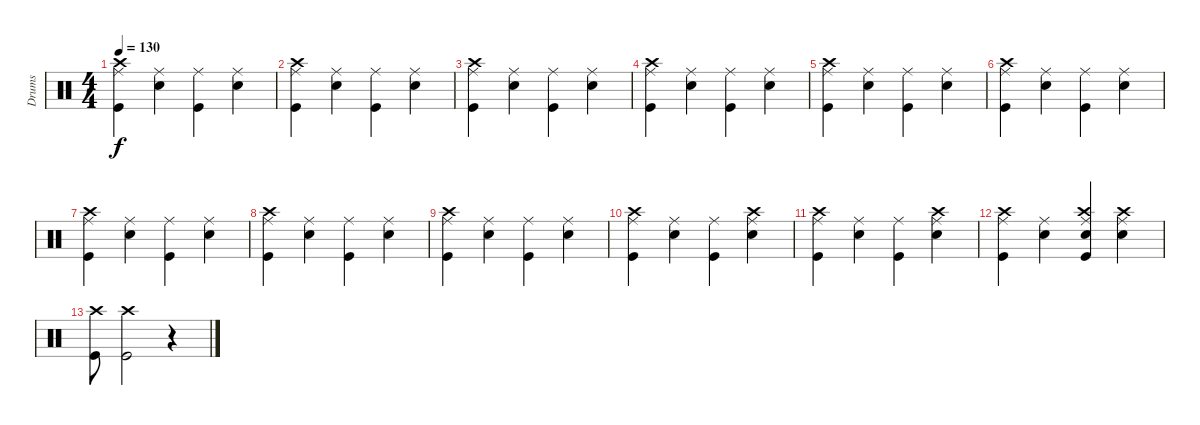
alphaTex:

\track ("Drums" "Drums") {instrument percussion}
\staff {score}
\articulation defaults
\ts (4 4)
\tempo 130
\clef neutral
\ks c
("Kick (hit)" "Crash high (hit)" "Ride (middle)").4{dy f} ("Snare (hit) 2" "Ride (middle)").4 ("Kick (hit)" "Ride (middle)").4 ("Snare (hit) 2" "Ride (middle)").4 |
("Kick (hit)" "Crash high (hit)" "Ride (middle)").4 ("Snare (hit) 2" "Ride (middle)").4 ("Kick (hit)" "Ride (middle)").4 ("Snare (hit) 2" "Ride (middle)").4 |
("Kick (hit)" "Crash high (hit)" "Ride (middle)").4 ("Snare (hit) 2" "Ride (middle)").4 ("Kick (hit)" "Ride (middle)").4 ("Snare (hit) 2" "Ride (middle)").4 |
("Kick (hit)" "Crash high (hit)" "Ride (middle)").4 ("Snare (hit) 2" "Ride (middle)").4 ("Kick (hit)" "Ride (middle)").4 ("Snare (hit) 2" "Ride (middle)").4 |
("Kick (hit)" "Crash high (hit)" "Ride (middle)").4 ("Snare (hit) 2" "Ride (middle)").4 ("Kick (hit)" "Ride (middle)").4 ("Snare (hit) 2" "Ride (middle)").4 |
("Kick (hit)" "Crash high (hit)" "Ride (middle)").4 ("Snare (hit) 2" "Ride (middle)").4 ("Kick (hit)" "Ride (middle)").4 ("Snare (hit) 2" "Ride (middle)").4 |
("Kick (hit)" "Crash high (hit)" "Ride (middle)").4 ("Snare (hit) 2" "Ride (middle)").4 ("Kick (hit)" "Ride (middle)").4 ("Snare (hit) 2" "Ride (middle)").4 |
("Kick (hit)" "Crash high (hit)" "Ride (middle)").4 ("Snare (hit) 2" "Ride (middle)").4 ("Kick (hit)" "Ride (middle)").4 ("Snare (hit) 2" "Ride (middle)").4 |
("Kick (hit)" "Crash high (hit)" "Ride (middle)").4 ("Snare (hit) 2" "Ride (middle)").4 ("Kick (hit)" "Ride (middle)").4 ("Snare (hit) 2" "Ride (middle)").4 |
("Kick (hit)" "Crash high (hit)" "Ride (middle)").4 ("Snare (hit) 2" "Ride (middle)").4 ("Kick (hit)" "Ride (middle)").4 ("Snare (hit) 2" "Crash high (hit)" "Ride (middle)").4 |
("Kick (hit)" "Crash high (hit)" "Ride (middle)").4 ("Snare (hit) 2" "Ride (middle)").4 ("Kick (hit)" "Ride (middle)").4 ("Snare (hit) 2" "Crash high (hit)" "Ride (middle)").4 |
("Kick (hit)" "Crash high (hit)" "Ride (middle)").4 ("Snare (hit) 2" "Ride (middle)").4 ("Kick (hit)" "Snare (hit) 2" "Crash high (hit)" "Ride (middle)").4 ("Snare (hit) 2" "Crash high (hit)" "Ride (middle)").4 |
("Kick (hit)" "Crash high (hit)").8 ("Kick (hit)" "Crash high (hit)").2 r.4
